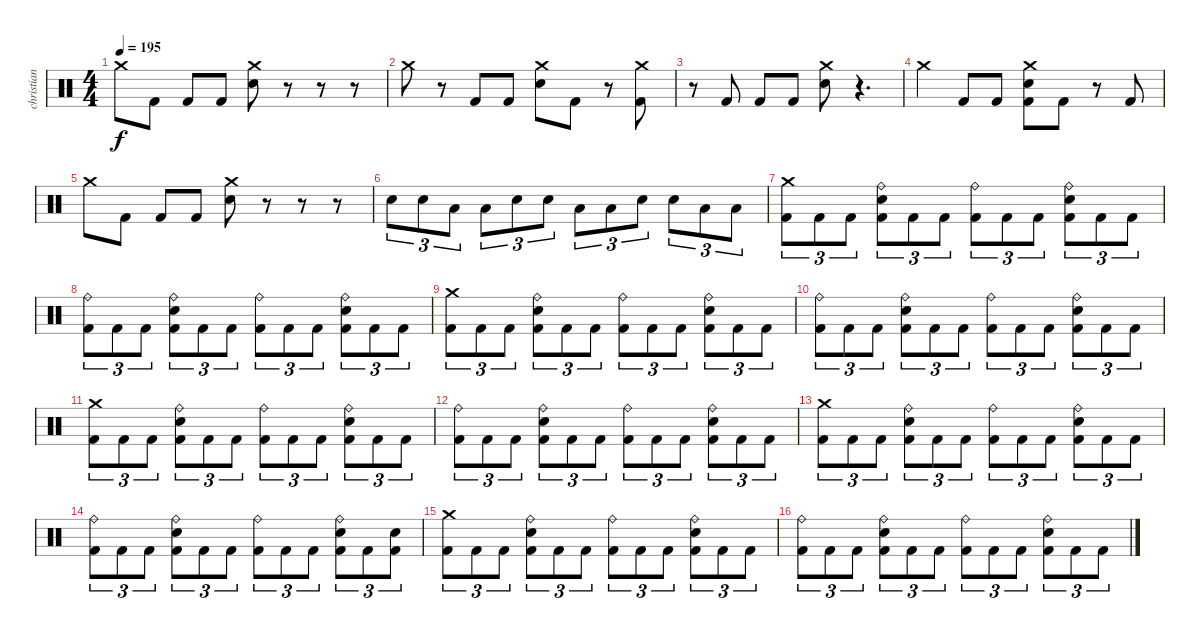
\track ("christian" "christian") {instrument percussion}
\staff {score}
\articulation defaults
\ts (4 4)
\tempo 195
\clef neutral
\ks c "Crash medium (hit)".8{dy f} "Kick (hit) 2".8 "Kick (hit) 2".8 "Kick (hit) 2".8
("Crash medium (hit)" "Electric Snare (hit)").8 r.8 r.8 r.8 |
"Crash medium (hit)".8 r.8 "Kick (hit) 2".8 "Kick (hit) 2".8 ("Crash medium (hit)" "Electric Snare (hit)").8 "Kick (hit) 2".8 r.8 ("Crash medium (hit)" "Kick (hit) 2").8 |
r.8 "Kick (hit) 2".8 "Kick (hit) 2".8 "Kick (hit) 2".8 ("Crash medium (hit)" "Electric Snare (hit)").8 r.4{d} |
"Crash medium (hit)".4 "Kick (hit) 2".8 "Kick (hit) 2".8 ("Crash medium (hit)" "Electric Snare (hit)" "Kick (hit) 2").8 "Kick (hit) 2".8 r.8 "Kick (hit) 2".8 |
"Crash medium (hit)".8 "Kick (hit) 2".8 "Kick (hit) 2".8 "Kick (hit) 2".8 ("Crash medium (hit)" "Electric Snare (hit)").8 r.8 r.8 r.8 |
"Electric Snare (hit)".8{tu (3 2)} "Electric Snare (hit)".8{tu (3 2)} "Low Tom (hit)".8{tu (3 2)} "Low Tom (hit)".8{tu (3 2)} "Electric Snare (hit)".8{tu (3 2)} "Electric Snare (hit)".8{tu (3 2)} "Low Tom (hit)".8{tu (3 2)} "Low Tom (hit)".8{tu (3 2)} "Electric Snare (hit)".8{tu (3 2)} "Electric Snare (hit)".8{tu (3 2)} "Low Tom (hit)".8{tu (3 2)} "Low Tom (hit)".8{tu (3 2)} |
("Crash medium (hit)" "Kick (hit) 2").8{tu (3 2)} "Kick (hit) 2".8{tu (3 2)} "Kick (hit) 2".8{tu (3 2)} ("Ride (bell)" "Electric Snare (hit)" "Kick (hit) 2").8{tu (3 2)} "Kick (hit) 2".8{tu (3 2)} "Kick (hit) 2".8{tu (3 2)} ("Ride (bell)" "Kick (hit) 2").8{tu (3 2)} "Kick (hit) 2".8{tu (3 2)} "Kick (hit) 2".8{tu (3 2)} ("Ride (bell)" "Electric Snare (hit)" "Kick (hit) 2").8{tu (3 2)} "Kick (hit) 2".8{tu (3 2)} "Kick (hit) 2".8{tu (3 2)} |
("Ride (bell)" "Kick (hit) 2").8{tu (3 2)} "Kick (hit) 2".8{tu (3 2)} "Kick (hit) 2".8{tu (3 2)} ("Ride (bell)" "Electric Snare (hit)" "Kick (hit) 2").8{tu (3 2)} "Kick (hit) 2".8{tu (3 2)} "Kick (hit) 2".8{tu (3 2)} ("Ride (bell)" "Kick (hit) 2").8{tu (3 2)} "Kick (hit) 2".8{tu (3 2)} "Kick (hit) 2".8{tu (3 2)} ("Ride (bell)" "Electric Snare (hit)" "Kick (hit) 2").8{tu (3 2)} "Kick (hit) 2".8{tu (3 2)} "Kick (hit) 2".8{tu (3 2)} |
("Crash medium (hit)" "Kick (hit) 2").8{tu (3 2)} "Kick (hit) 2".8{tu (3 2)} "Kick (hit) 2".8{tu (3 2)} ("Ride (bell)" "Electric Snare (hit)" "Kick (hit) 2").8{tu (3 2)} "Kick (hit) 2".8{tu (3 2)} "Kick (hit) 2".8{tu (3 2)} ("Ride (bell)" "Kick (hit) 2").8{tu (3 2)} "Kick (hit) 2".8{tu (3 2)} "Kick (hit) 2".8{tu (3 2)} ("Ride (bell)" "Electric Snare (hit)" "Kick (hit) 2").8{tu (3 2)} "Kick (hit) 2".8{tu (3 2)} "Kick (hit) 2".8{tu (3 2)} |
("Ride (bell)" "Kick (hit) 2").8{tu (3 2)} "Kick (hit) 2".8{tu (3 2)} "Kick (hit) 2".8{tu (3 2)} ("Ride (bell)" "Electric Snare (hit)" "Kick (hit) 2").8{tu (3 2)} "Kick (hit) 2".8{tu (3 2)} "Kick (hit) 2".8{tu (3 2)} ("Ride (bell)" "Kick (hit) 2").8{tu (3 2)} "Kick (hit) 2".8{tu (3 2)} "Kick (hit) 2".8{tu (3 2)} ("Ride (bell)" "Electric Snare (hit)" "Kick (hit) 2").8{tu (3 2)} "Kick (hit) 2".8{tu (3 2)} "Kick (hit) 2".8{tu (3 2)} |
("Crash medium (hit)" "Kick (hit) 2").8{tu (3 2)} "Kick (hit) 2".8{tu (3 2)} "Kick (hit) 2".8{tu (3 2)} ("Ride (bell)" "Electric Snare (hit)" "Kick (hit) 2").8{tu (3 2)} "Kick (hit) 2".8{tu (3 2)} "Kick (hit) 2".8{tu (3 2)} ("Ride (bell)" "Kick (hit) 2").8{tu (3 2)} "Kick (hit) 2".8{tu (3 2)} "Kick (hit) 2".8{tu (3 2)} ("Ride (bell)" "Electric Snare (hit)" "Kick (hit) 2").8{tu (3 2)} "Kick (hit) 2".8{tu (3 2)} "Kick (hit) 2".8{tu (3 2)} |
("Ride (bell)" "Kick (hit) 2").8{tu (3 2)} "Kick (hit) 2".8{tu (3 2)} "Kick (hit) 2".8{tu (3 2)} ("Ride (bell)" "Electric Snare (hit)" "Kick (hit) 2").8{tu (3 2)} "Kick (hit) 2".8{tu (3 2)} "Kick (hit) 2".8{tu (3 2)} ("Ride (bell)" "Kick (hit) 2").8{tu (3 2)} "Kick (hit) 2".8{tu (3 2)} "Kick (hit) 2".8{tu (3 2)} ("Ride (bell)" "Electric Snare (hit)" "Kick (hit) 2").8{tu (3 2)} "Kick (hit) 2".8{tu (3 2)} "Kick (hit) 2".8{tu (3 2)} |
("Crash medium (hit)" "Kick (hit) 2").8{tu (3 2)} "Kick (hit) 2".8{tu (3 2)} "Kick (hit) 2".8{tu (3 2)} ("Ride (bell)" "Electric Snare (hit)" "Kick (hit) 2").8{tu (3 2)} "Kick (hit) 2".8{tu (3 2)} "Kick (hit) 2".8{tu (3 2)} ("Ride (bell)" "Kick (hit) 2").8{tu (3 2)} "Kick (hit) 2".8{tu (3 2)} "Kick (hit) 2".8{tu (3 2)} ("Ride (bell)" "Electric Snare (hit)" "Kick (hit) 2").8{tu (3 2)} "Kick (hit) 2".8{tu (3 2)} "Kick (hit) 2".8{tu (3 2)} |
("Ride (bell)" "Kick (hit) 2").8{tu (3 2)} "Kick (hit) 2".8{tu (3 2)} "Kick (hit) 2".8{tu (3 2)} ("Ride (bell)" "Electric Snare (hit)" "Kick (hit) 2").8{tu (3 2)} "Kick (hit) 2".8{tu (3 2)} "Kick (hit) 2".8{tu (3 2)} ("Ride (bell)" "Kick (hit) 2").8{tu (3 2)} "Kick (hit) 2".8{tu (3 2)} "Kick (hit) 2".8{tu (3 2)} ("Ride (bell)" "Electric Snare (hit)" "Kick (hit) 2").8{tu (3 2)} "Kick (hit) 2".8{tu (3 2)} ("Electric Snare (hit)" "Kick (hit) 2").8{tu (3 2)} |
("Crash medium (hit)" "Kick (hit) 2").8{tu (3 2)} "Kick (hit) 2".8{tu (3 2)} "Kick (hit) 2".8{tu (3 2)} ("Ride (bell)" "Electric Snare (hit)" "Kick (hit) 2").8{tu (3 2)} "Kick (hit) 2".8{tu (3 2)} "Kick (hit) 2".8{tu (3 2)} ("Ride (bell)" "Kick (hit) 2").8{tu (3 2)} "Kick (hit) 2".8{tu (3 2)} "Kick (hit) 2".8{tu (3 2)} ("Ride (bell)" "Electric Snare (hit)" "Kick (hit) 2").8{tu (3 2)} "Kick (hit) 2".8{tu (3 2)} "Kick (hit) 2".8{tu (3 2)} |
("Ride (bell)" "Kick (hit) 2").8{tu (3 2)} "Kick (hit) 2".8{tu (3 2)} "Kick (hit) 2".8{tu (3 2)} ("Ride (bell)" "Electric Snare (hit)" "Kick (hit) 2").8{tu (3 2)} "Kick (hit) 2".8{tu (3 2)} "Kick (hit) 2".8{tu (3 2)} ("Ride (bell)" "Kick (hit) 2").8{tu (3 2)} "Kick (hit) 2".8{tu (3 2)} "Kick (hit) 2".8{tu (3 2)} ("Ride (bell)" "Electric Snare (hit)" "Kick (hit) 2").8{tu (3 2)} "Kick (hit) 2".8{tu (3 2)} "Kick (hit) 2".8{tu (3 2)}
